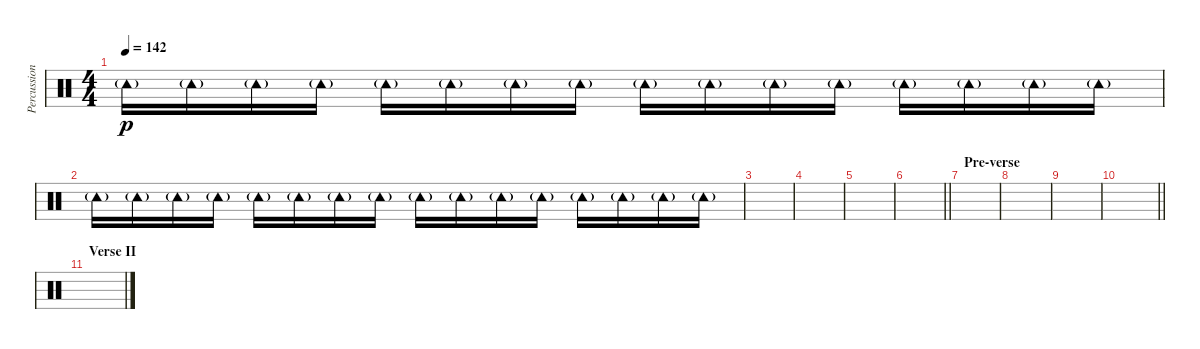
\track ("Percussion" "Percussion") {instrument percussion}
\staff {score}
\articulation defaults
\ts (4 4)
\tempo 142
\clef neutral
\ks c "Tambourine (hit)"{g}.16{dy p} "Tambourine (hit)"{g}.16 "Tambourine (hit)"{g}.16 "Tambourine (hit)"{g}.16 "Tambourine (hit)"{g}.16 "Tambourine (hit)"{g}.16 "Tambourine (hit)"{g}.16 "Tambourine (hit)"{g}.16 "Tambourine (hit)"{g}.16 "Tambourine (hit)"{g}.16 "Tambourine (hit)"{g}.16 "Tambourine (hit)"{g}.16 "Tambourine (hit)"{g}.16 "Tambourine (hit)"{g}.16 "Tambourine (hit)"{g}.16 "Tambourine (hit)"{g}.16
|
"Tambourine (hit)"{g}.16 "Tambourine (hit)"{g}.16 "Tambourine (hit)"{g}.16 "Tambourine (hit)"{g}.16 "Tambourine (hit)"{g}.16 "Tambourine (hit)"{g}.16 "Tambourine (hit)"{g}.16 "Tambourine (hit)"{g}.16 "Tambourine (hit)"{g}.16 "Tambourine (hit)"{g}.16 "Tambourine (hit)"{g}.16 "Tambourine (hit)"{g}.16 "Tambourine (hit)"{g}.16 "Tambourine (hit)"{g}.16 "Tambourine (hit)"{g}.16 "Tambourine (hit)"{g}.16 |
|
|
|
\barLineRight lightlight
|
\section ("" "Pre-verse")
|
|
|
\barLineRight lightlight
|
\section ("" "Verse II")
